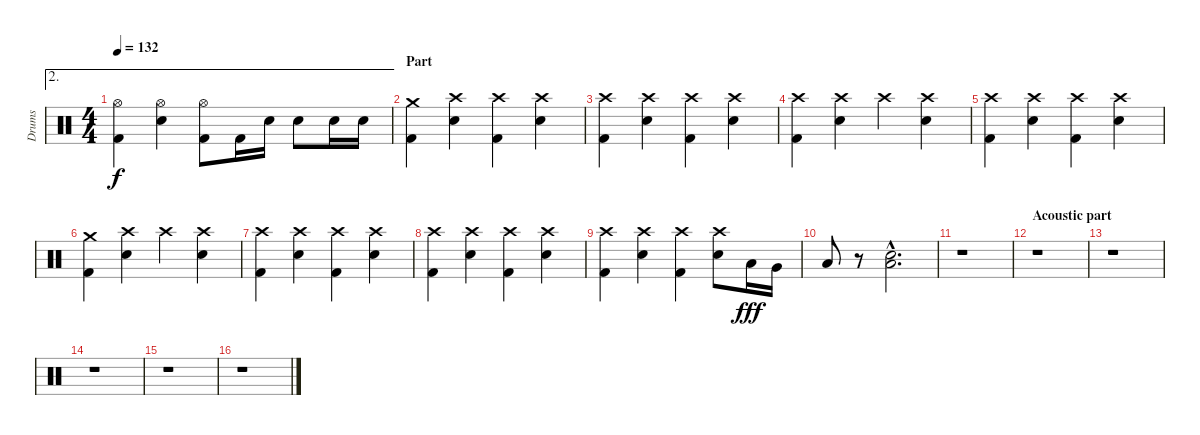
\track ("Drums" "Drums") {instrument percussion}
\staff {score}
\articulation defaults
\ae 2
\ts (4 4)
\tempo 132
\clef neutral
\ks c
("Kick (hit) 2" "Hi-Hat (open)").4{dy f} ("Hi-Hat (open)" "Snare (hit) 2").4 ("Kick (hit) 2" "Hi-Hat (open)").8 "Kick (hit) 2".16 "Snare (hit) 2".16 "Snare (hit) 2".8 "Snare (hit) 2".16 "Snare (hit) 2".16 |
\section ("" "Part")
("Kick (hit) 2" "Crash medium (hit)").4 ("Crash high (hit)" "Snare (hit) 2").4 ("Kick (hit) 2" "Crash high (hit)").4 ("Crash high (hit)" "Snare (hit) 2").4 |
("Kick (hit) 2" "Crash high (hit)").4 ("Crash high (hit)" "Snare (hit) 2").4 ("Kick (hit) 2" "Crash high (hit)").4 ("Crash high (hit)" "Snare (hit) 2").4 |
("Kick (hit) 2" "Crash high (hit)").4 ("Crash high (hit)" "Snare (hit) 2").4 "Crash high (hit)".4 ("Crash high (hit)" "Snare (hit) 2").4 |
("Kick (hit) 2" "Crash high (hit)").4 ("Crash high (hit)" "Snare (hit) 2").4 ("Kick (hit) 2" "Crash high (hit)").4 ("Crash high (hit)" "Snare (hit) 2").4 |
("Kick (hit) 2" "Crash medium (hit)").4 ("Crash high (hit)" "Snare (hit) 2").4 "Crash high (hit)".4 ("Crash high (hit)" "Snare (hit) 2").4 |
("Kick (hit) 2" "Crash high (hit)").4 ("Crash high (hit)" "Snare (hit) 2").4 ("Kick (hit) 2" "Crash high (hit)").4 ("Crash high (hit)" "Snare (hit) 2").4 |
("Kick (hit) 2" "Crash high (hit)").4 ("Crash high (hit)" "Snare (hit) 2").4 ("Kick (hit) 2" "Crash high (hit)").4 ("Crash high (hit)" "Snare (hit) 2").4 |
("Kick (hit) 2" "Crash high (hit)").4 ("Crash high (hit)" "Snare (hit) 2").4 ("Kick (hit) 2" "Crash high (hit)").4 ("Crash high (hit)" "Snare (hit) 2").8 "Low Tom (hit)".16{dy fff} "Very Low Tom (hit)".16 |
"Low Floor Tom (hit)".8 r.8 ("Low Floor Tom (hit)"{hac} "Snare (hit) 2"{hac}).2{d} |
r.1 |
\section ("" "Acoustic part")
r.1 |
r.1 |
r.1 |
r.1 |
r.1
